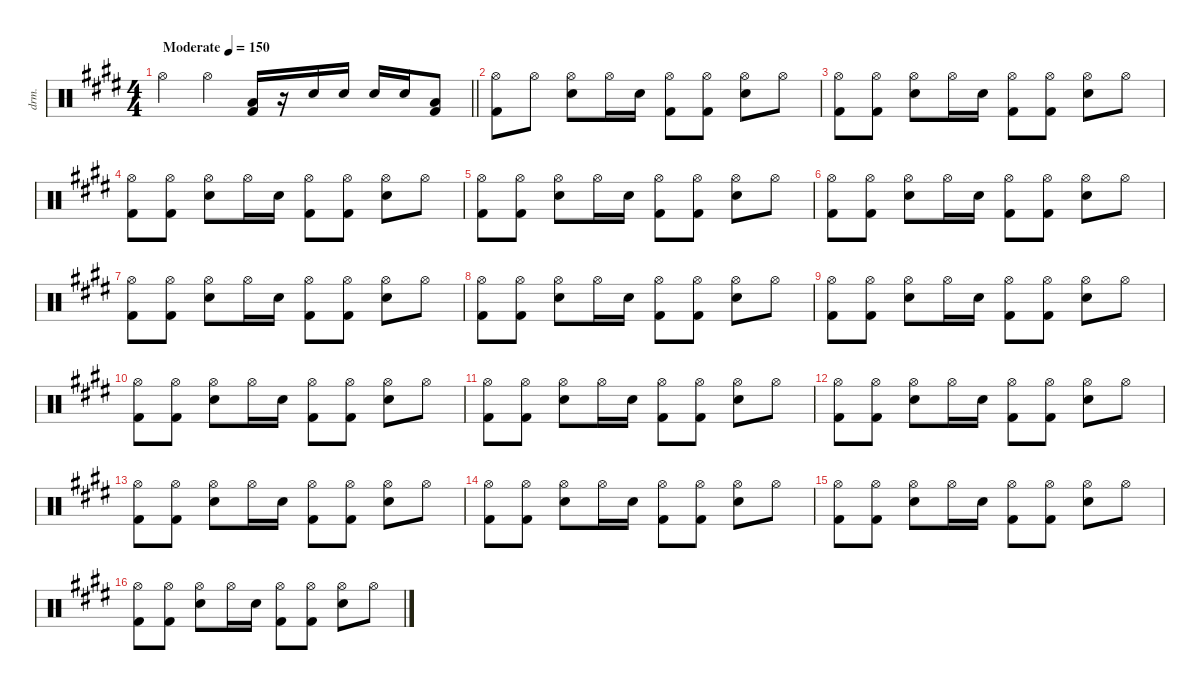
\defaultSystemsLayout 4
\hideDynamics
\bracketExtendMode nobrackets
\track (" (Drums)" "drm.") {instrument percussion}
\staff {score}
\articulation defaults
\ts (4 4)
\beaming (8 2 2 2 2)
\tempo (150 "Moderate")
\clef neutral
\barLineRight lightlight
\ks c#minor "Hi-Hat (open)"{acc forcenatural}.4{dy f} "Hi-Hat (open)"{acc forcenatural}.4
("Low Tom (hit)"{acc forcenatural} "Kick (hit) 2"{acc forcenatural}).16 r.16 "Snare (hit) 2"{acc forcenatural}.16 "Snare (hit) 2"{acc forcenatural}.16 "Snare (hit) 2"{acc forcenatural}.16 "Snare (hit) 2"{acc forcenatural}.16 ("Low Tom (hit)"{acc forcenatural} "Kick (hit) 2"{acc forcenatural}).8 |
("Hi-Hat (open)"{acc forcenatural} "Kick (hit) 2"{acc forcenatural}).8 "Hi-Hat (open)"{acc forcenatural}.8 ("Hi-Hat (open)"{acc forcenatural} "Snare (hit) 2"{acc forcenatural}).8 "Hi-Hat (open)"{acc forcenatural}.16 "Snare (hit) 2"{acc forcenatural}.16{dy mf} ("Hi-Hat (open)"{acc forcenatural} "Kick (hit) 2"{acc forcenatural}).8{dy f} ("Hi-Hat (open)"{acc forcenatural} "Kick (hit) 2"{acc forcenatural}).8 ("Hi-Hat (open)"{acc forcenatural} "Snare (hit) 2"{acc forcenatural}).8 "Hi-Hat (open)"{acc forcenatural}.8 |
("Hi-Hat (open)"{acc forcenatural} "Kick (hit) 2"{acc forcenatural}).8 ("Hi-Hat (open)"{acc forcenatural} "Kick (hit) 2"{acc forcenatural}).8 ("Hi-Hat (open)"{acc forcenatural} "Snare (hit) 2"{acc forcenatural}).8 "Hi-Hat (open)"{acc forcenatural}.16 "Snare (hit) 2"{acc forcenatural}.16{dy mf} ("Hi-Hat (open)"{acc forcenatural} "Kick (hit) 2"{acc forcenatural}).8{dy f} ("Hi-Hat (open)"{acc forcenatural} "Kick (hit) 2"{acc forcenatural}).8 ("Hi-Hat (open)"{acc forcenatural} "Snare (hit) 2"{acc forcenatural}).8 "Hi-Hat (open)"{acc forcenatural}.8 |
("Hi-Hat (open)"{acc forcenatural} "Kick (hit) 2"{acc forcenatural}).8 ("Hi-Hat (open)"{acc forcenatural} "Kick (hit) 2"{acc forcenatural}).8 ("Hi-Hat (open)"{acc forcenatural} "Snare (hit) 2"{acc forcenatural}).8 "Hi-Hat (open)"{acc forcenatural}.16 "Snare (hit) 2"{acc forcenatural}.16{dy mf} ("Hi-Hat (open)"{acc forcenatural} "Kick (hit) 2"{acc forcenatural}).8{dy f} ("Hi-Hat (open)"{acc forcenatural} "Kick (hit) 2"{acc forcenatural}).8 ("Hi-Hat (open)"{acc forcenatural} "Snare (hit) 2"{acc forcenatural}).8 "Hi-Hat (open)"{acc forcenatural}.8 |
("Hi-Hat (open)"{acc forcenatural} "Kick (hit) 2"{acc forcenatural}).8 ("Hi-Hat (open)"{acc forcenatural} "Kick (hit) 2"{acc forcenatural}).8 ("Hi-Hat (open)"{acc forcenatural} "Snare (hit) 2"{acc forcenatural}).8 "Hi-Hat (open)"{acc forcenatural}.16 "Snare (hit) 2"{acc forcenatural}.16{dy mf} ("Hi-Hat (open)"{acc forcenatural} "Kick (hit) 2"{acc forcenatural}).8{dy f} ("Hi-Hat (open)"{acc forcenatural} "Kick (hit) 2"{acc forcenatural}).8 ("Hi-Hat (open)"{acc forcenatural} "Snare (hit) 2"{acc forcenatural}).8 "Hi-Hat (open)"{acc forcenatural}.8 |
("Hi-Hat (open)"{acc forcenatural} "Kick (hit) 2"{acc forcenatural}).8 ("Hi-Hat (open)"{acc forcenatural} "Kick (hit) 2"{acc forcenatural}).8 ("Hi-Hat (open)"{acc forcenatural} "Snare (hit) 2"{acc forcenatural}).8 "Hi-Hat (open)"{acc forcenatural}.16 "Snare (hit) 2"{acc forcenatural}.16{dy mf} ("Hi-Hat (open)"{acc forcenatural} "Kick (hit) 2"{acc forcenatural}).8{dy f} ("Hi-Hat (open)"{acc forcenatural} "Kick (hit) 2"{acc forcenatural}).8 ("Hi-Hat (open)"{acc forcenatural} "Snare (hit) 2"{acc forcenatural}).8 "Hi-Hat (open)"{acc forcenatural}.8 |
("Hi-Hat (open)"{acc forcenatural} "Kick (hit) 2"{acc forcenatural}).8 ("Hi-Hat (open)"{acc forcenatural} "Kick (hit) 2"{acc forcenatural}).8 ("Hi-Hat (open)"{acc forcenatural} "Snare (hit) 2"{acc forcenatural}).8 "Hi-Hat (open)"{acc forcenatural}.16 "Snare (hit) 2"{acc forcenatural}.16{dy mf} ("Hi-Hat (open)"{acc forcenatural} "Kick (hit) 2"{acc forcenatural}).8{dy f} ("Hi-Hat (open)"{acc forcenatural} "Kick (hit) 2"{acc forcenatural}).8 ("Hi-Hat (open)"{acc forcenatural} "Snare (hit) 2"{acc forcenatural}).8 "Hi-Hat (open)"{acc forcenatural}.8 |
("Hi-Hat (open)"{acc forcenatural} "Kick (hit) 2"{acc forcenatural}).8 ("Hi-Hat (open)"{acc forcenatural} "Kick (hit) 2"{acc forcenatural}).8 ("Hi-Hat (open)"{acc forcenatural} "Snare (hit) 2"{acc forcenatural}).8 "Hi-Hat (open)"{acc forcenatural}.16 "Snare (hit) 2"{acc forcenatural}.16{dy mf} ("Hi-Hat (open)"{acc forcenatural} "Kick (hit) 2"{acc forcenatural}).8{dy f} ("Hi-Hat (open)"{acc forcenatural} "Kick (hit) 2"{acc forcenatural}).8 ("Hi-Hat (open)"{acc forcenatural} "Snare (hit) 2"{acc forcenatural}).8 "Hi-Hat (open)"{acc forcenatural}.8 |
("Hi-Hat (open)"{acc forcenatural} "Kick (hit) 2"{acc forcenatural}).8 ("Hi-Hat (open)"{acc forcenatural} "Kick (hit) 2"{acc forcenatural}).8 ("Hi-Hat (open)"{acc forcenatural} "Snare (hit) 2"{acc forcenatural}).8 "Hi-Hat (open)"{acc forcenatural}.16 "Snare (hit) 2"{acc forcenatural}.16{dy mf} ("Hi-Hat (open)"{acc forcenatural} "Kick (hit) 2"{acc forcenatural}).8{dy f} ("Hi-Hat (open)"{acc forcenatural} "Kick (hit) 2"{acc forcenatural}).8 ("Hi-Hat (open)"{acc forcenatural} "Snare (hit) 2"{acc forcenatural}).8 "Hi-Hat (open)"{acc forcenatural}.8 |
("Hi-Hat (open)"{acc forcenatural} "Kick (hit) 2"{acc forcenatural}).8 ("Hi-Hat (open)"{acc forcenatural} "Kick (hit) 2"{acc forcenatural}).8 ("Hi-Hat (open)"{acc forcenatural} "Snare (hit) 2"{acc forcenatural}).8 "Hi-Hat (open)"{acc forcenatural}.16 "Snare (hit) 2"{acc forcenatural}.16{dy mf} ("Hi-Hat (open)"{acc forcenatural} "Kick (hit) 2"{acc forcenatural}).8{dy f} ("Hi-Hat (open)"{acc forcenatural} "Kick (hit) 2"{acc forcenatural}).8 ("Hi-Hat (open)"{acc forcenatural} "Snare (hit) 2"{acc forcenatural}).8 "Hi-Hat (open)"{acc forcenatural}.8 |
("Hi-Hat (open)"{acc forcenatural} "Kick (hit) 2"{acc forcenatural}).8 ("Hi-Hat (open)"{acc forcenatural} "Kick (hit) 2"{acc forcenatural}).8 ("Hi-Hat (open)"{acc forcenatural} "Snare (hit) 2"{acc forcenatural}).8 "Hi-Hat (open)"{acc forcenatural}.16 "Snare (hit) 2"{acc forcenatural}.16{dy mf} ("Hi-Hat (open)"{acc forcenatural} "Kick (hit) 2"{acc forcenatural}).8{dy f} ("Hi-Hat (open)"{acc forcenatural} "Kick (hit) 2"{acc forcenatural}).8 ("Hi-Hat (open)"{acc forcenatural} "Snare (hit) 2"{acc forcenatural}).8 "Hi-Hat (open)"{acc forcenatural}.8 |
("Hi-Hat (open)"{acc forcenatural} "Kick (hit) 2"{acc forcenatural}).8 ("Hi-Hat (open)"{acc forcenatural} "Kick (hit) 2"{acc forcenatural}).8 ("Hi-Hat (open)"{acc forcenatural} "Snare (hit) 2"{acc forcenatural}).8 "Hi-Hat (open)"{acc forcenatural}.16 "Snare (hit) 2"{acc forcenatural}.16{dy mf} ("Hi-Hat (open)"{acc forcenatural} "Kick (hit) 2"{acc forcenatural}).8{dy f} ("Hi-Hat (open)"{acc forcenatural} "Kick (hit) 2"{acc forcenatural}).8 ("Hi-Hat (open)"{acc forcenatural} "Snare (hit) 2"{acc forcenatural}).8 "Hi-Hat (open)"{acc forcenatural}.8 |
("Hi-Hat (open)"{acc forcenatural} "Kick (hit) 2"{acc forcenatural}).8 ("Hi-Hat (open)"{acc forcenatural} "Kick (hit) 2"{acc forcenatural}).8 ("Hi-Hat (open)"{acc forcenatural} "Snare (hit) 2"{acc forcenatural}).8 "Hi-Hat (open)"{acc forcenatural}.16 "Snare (hit) 2"{acc forcenatural}.16{dy mf} ("Hi-Hat (open)"{acc forcenatural} "Kick (hit) 2"{acc forcenatural}).8{dy f} ("Hi-Hat (open)"{acc forcenatural} "Kick (hit) 2"{acc forcenatural}).8 ("Hi-Hat (open)"{acc forcenatural} "Snare (hit) 2"{acc forcenatural}).8 "Hi-Hat (open)"{acc forcenatural}.8 |
("Hi-Hat (open)"{acc forcenatural} "Kick (hit) 2"{acc forcenatural}).8 ("Hi-Hat (open)"{acc forcenatural} "Kick (hit) 2"{acc forcenatural}).8 ("Hi-Hat (open)"{acc forcenatural} "Snare (hit) 2"{acc forcenatural}).8 "Hi-Hat (open)"{acc forcenatural}.16 "Snare (hit) 2"{acc forcenatural}.16{dy mf} ("Hi-Hat (open)"{acc forcenatural} "Kick (hit) 2"{acc forcenatural}).8{dy f} ("Hi-Hat (open)"{acc forcenatural} "Kick (hit) 2"{acc forcenatural}).8 ("Hi-Hat (open)"{acc forcenatural} "Snare (hit) 2"{acc forcenatural}).8 "Hi-Hat (open)"{acc forcenatural}.8 |
("Hi-Hat (open)"{acc forcenatural} "Kick (hit) 2"{acc forcenatural}).8 ("Hi-Hat (open)"{acc forcenatural} "Kick (hit) 2"{acc forcenatural}).8 ("Hi-Hat (open)"{acc forcenatural} "Snare (hit) 2"{acc forcenatural}).8 "Hi-Hat (open)"{acc forcenatural}.16 "Snare (hit) 2"{acc forcenatural}.16{dy mf} ("Hi-Hat (open)"{acc forcenatural} "Kick (hit) 2"{acc forcenatural}).8{dy f} ("Hi-Hat (open)"{acc forcenatural} "Kick (hit) 2"{acc forcenatural}).8 ("Hi-Hat (open)"{acc forcenatural} "Snare (hit) 2"{acc forcenatural}).8 "Hi-Hat (open)"{acc forcenatural}.8 |
("Hi-Hat (open)"{acc forcenatural} "Kick (hit) 2"{acc forcenatural}).8 ("Hi-Hat (open)"{acc forcenatural} "Kick (hit) 2"{acc forcenatural}).8 ("Hi-Hat (open)"{acc forcenatural} "Snare (hit) 2"{acc forcenatural}).8 "Hi-Hat (open)"{acc forcenatural}.16 "Snare (hit) 2"{acc forcenatural}.16{dy mf} ("Hi-Hat (open)"{acc forcenatural} "Kick (hit) 2"{acc forcenatural}).8{dy f} ("Hi-Hat (open)"{acc forcenatural} "Kick (hit) 2"{acc forcenatural}).8 ("Hi-Hat (open)"{acc forcenatural} "Snare (hit) 2"{acc forcenatural}).8 "Hi-Hat (open)"{acc forcenatural}.8
